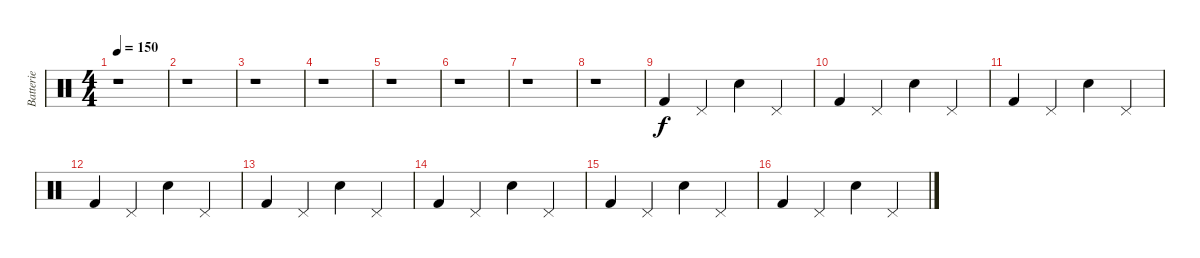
\track ("Batterie" "Batterie") {instrument percussion}
\staff {score}
\articulation defaults
\ts (4 4)
\tempo 150
\clef neutral
\ks c
r.1{dy f} |
r.1 |
r.1 |
r.1 |
r.1 |
r.1 |
r.1 |
r.1 |
"Kick (hit) 2".4 "Pedal Hi-Hat (hit)".4 "Electric Snare (hit)".4 "Pedal Hi-Hat (hit)".4 |
"Kick (hit) 2".4 "Pedal Hi-Hat (hit)".4 "Electric Snare (hit)".4 "Pedal Hi-Hat (hit)".4 |
"Kick (hit) 2".4 "Pedal Hi-Hat (hit)".4 "Electric Snare (hit)".4 "Pedal Hi-Hat (hit)".4 |
"Kick (hit) 2".4 "Pedal Hi-Hat (hit)".4 "Electric Snare (hit)".4 "Pedal Hi-Hat (hit)".4 |
"Kick (hit) 2".4 "Pedal Hi-Hat (hit)".4 "Electric Snare (hit)".4 "Pedal Hi-Hat (hit)".4 |
"Kick (hit) 2".4 "Pedal Hi-Hat (hit)".4 "Electric Snare (hit)".4 "Pedal Hi-Hat (hit)".4 |
"Kick (hit) 2".4 "Pedal Hi-Hat (hit)".4 "Electric Snare (hit)".4 "Pedal Hi-Hat (hit)".4 |
"Kick (hit) 2".4 "Pedal Hi-Hat (hit)".4 "Electric Snare (hit)".4 "Pedal Hi-Hat (hit)".4
